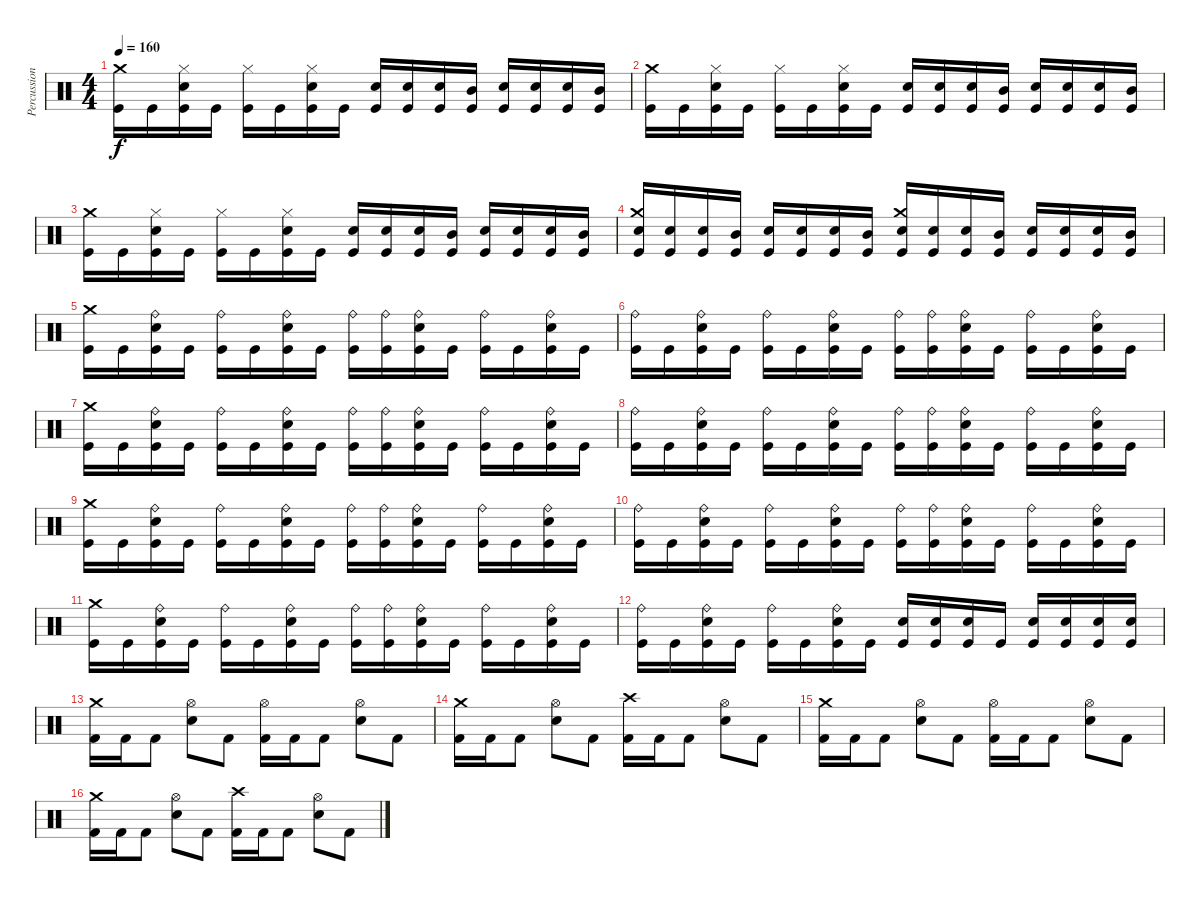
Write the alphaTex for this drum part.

\track ("Percussions" "Percussion") {instrument percussion}
\staff {score}
\articulation defaults
\ts (4 4)
\tempo 160
\clef neutral
\ks c
("Kick (hit)" "Crash medium (hit)").16{dy f} "Kick (hit)".16 ("Kick (hit)" "Snare (hit) 2" "Hi-Hat (closed)").16 "Kick (hit)".16 ("Kick (hit)" "Hi-Hat (closed)").16 "Kick (hit)".16 ("Kick (hit)" "Snare (hit) 2" "Hi-Hat (closed)").16 "Kick (hit)".16 ("Kick (hit)" "Electric Snare (hit)").16 ("Kick (hit)" "Electric Snare (hit)").16 ("Kick (hit)" "Snare (hit) 2").16 ("Kick (hit)" "Mid Tom (hit)").16 ("Kick (hit)" "Electric Snare (hit)").16 ("Kick (hit)" "Electric Snare (hit)").16 ("Kick (hit)" "Snare (hit) 2").16 ("Kick (hit)" "Mid Tom (hit)").16 |
("Kick (hit)" "Crash medium (hit)").16 "Kick (hit)".16 ("Kick (hit)" "Snare (hit) 2" "Hi-Hat (closed)").16 "Kick (hit)".16 ("Kick (hit)" "Hi-Hat (closed)").16 "Kick (hit)".16 ("Kick (hit)" "Snare (hit) 2" "Hi-Hat (closed)").16 "Kick (hit)".16 ("Kick (hit)" "Electric Snare (hit)").16 ("Kick (hit)" "Electric Snare (hit)").16 ("Kick (hit)" "Snare (hit) 2").16 ("Kick (hit)" "Mid Tom (hit)").16 ("Kick (hit)" "Electric Snare (hit)").16 ("Kick (hit)" "Electric Snare (hit)").16 ("Kick (hit)" "Snare (hit) 2").16 ("Kick (hit)" "Mid Tom (hit)").16 |
("Kick (hit)" "Crash medium (hit)").16 "Kick (hit)".16 ("Kick (hit)" "Snare (hit) 2" "Hi-Hat (closed)").16 "Kick (hit)".16 ("Kick (hit)" "Hi-Hat (closed)").16 "Kick (hit)".16 ("Kick (hit)" "Snare (hit) 2" "Hi-Hat (closed)").16 "Kick (hit)".16 ("Kick (hit)" "Electric Snare (hit)").16 ("Kick (hit)" "Electric Snare (hit)").16 ("Kick (hit)" "Snare (hit) 2").16 ("Kick (hit)" "Mid Tom (hit)").16 ("Kick (hit)" "Electric Snare (hit)").16 ("Kick (hit)" "Electric Snare (hit)").16 ("Kick (hit)" "Snare (hit) 2").16 ("Kick (hit)" "Mid Tom (hit)").16 |
("Kick (hit)" "Crash medium (hit)" "Electric Snare (hit)").16 ("Kick (hit)" "Electric Snare (hit)").16 ("Kick (hit)" "Snare (hit) 2").16 ("Kick (hit)" "Mid Tom (hit)").16 ("Kick (hit)" "Electric Snare (hit)").16 ("Kick (hit)" "Electric Snare (hit)").16 ("Kick (hit)" "Snare (hit) 2").16 ("Kick (hit)" "Mid Tom (hit)").16 ("Kick (hit)" "Crash medium (hit)" "Electric Snare (hit)").16 ("Kick (hit)" "Electric Snare (hit)").16 ("Kick (hit)" "Snare (hit) 2").16 ("Kick (hit)" "Mid Tom (hit)").16 ("Kick (hit)" "Electric Snare (hit)").16 ("Kick (hit)" "Electric Snare (hit)").16 ("Kick (hit)" "Snare (hit) 2").16 ("Kick (hit)" "Mid Tom (hit)").16 |
("Kick (hit)" "Crash medium (hit)").16 "Kick (hit)".16 ("Kick (hit)" "Electric Snare (hit)" "Ride (bell)").16 "Kick (hit)".16 ("Kick (hit)" "Ride (bell)").16 "Kick (hit)".16 ("Kick (hit)" "Electric Snare (hit)" "Ride (bell)").16 "Kick (hit)".16 ("Kick (hit)" "Ride (bell)").16 ("Kick (hit)" "Ride (bell)").16 ("Kick (hit)" "Electric Snare (hit)" "Ride (bell)").16 "Kick (hit)".16 ("Kick (hit)" "Ride (bell)").16 "Kick (hit)".16 ("Kick (hit)" "Electric Snare (hit)" "Ride (bell)").16 "Kick (hit)".16 |
("Kick (hit)" "Ride (bell)").16 "Kick (hit)".16 ("Kick (hit)" "Electric Snare (hit)" "Ride (bell)").16 "Kick (hit)".16 ("Kick (hit)" "Ride (bell)").16 "Kick (hit)".16 ("Kick (hit)" "Electric Snare (hit)" "Ride (bell)").16 "Kick (hit)".16 ("Kick (hit)" "Ride (bell)").16 ("Kick (hit)" "Ride (bell)").16 ("Kick (hit)" "Electric Snare (hit)" "Ride (bell)").16 "Kick (hit)".16 ("Kick (hit)" "Ride (bell)").16 "Kick (hit)".16 ("Kick (hit)" "Electric Snare (hit)" "Ride (bell)").16 "Kick (hit)".16 |
("Kick (hit)" "Crash medium (hit)").16 "Kick (hit)".16 ("Kick (hit)" "Electric Snare (hit)" "Ride (bell)").16 "Kick (hit)".16 ("Kick (hit)" "Ride (bell)").16 "Kick (hit)".16 ("Kick (hit)" "Electric Snare (hit)" "Ride (bell)").16 "Kick (hit)".16 ("Kick (hit)" "Ride (bell)").16 ("Kick (hit)" "Ride (bell)").16 ("Kick (hit)" "Electric Snare (hit)" "Ride (bell)").16 "Kick (hit)".16 ("Kick (hit)" "Ride (bell)").16 "Kick (hit)".16 ("Kick (hit)" "Electric Snare (hit)" "Ride (bell)").16 "Kick (hit)".16 |
("Kick (hit)" "Ride (bell)").16 "Kick (hit)".16 ("Kick (hit)" "Electric Snare (hit)" "Ride (bell)").16 "Kick (hit)".16 ("Kick (hit)" "Ride (bell)").16 "Kick (hit)".16 ("Kick (hit)" "Electric Snare (hit)" "Ride (bell)").16 "Kick (hit)".16 ("Kick (hit)" "Ride (bell)").16 ("Kick (hit)" "Ride (bell)").16 ("Kick (hit)" "Electric Snare (hit)" "Ride (bell)").16 "Kick (hit)".16 ("Kick (hit)" "Ride (bell)").16 "Kick (hit)".16 ("Kick (hit)" "Electric Snare (hit)" "Ride (bell)").16 "Kick (hit)".16 |
("Kick (hit)" "Crash medium (hit)").16 "Kick (hit)".16 ("Kick (hit)" "Electric Snare (hit)" "Ride (bell)").16 "Kick (hit)".16 ("Kick (hit)" "Ride (bell)").16 "Kick (hit)".16 ("Kick (hit)" "Electric Snare (hit)" "Ride (bell)").16 "Kick (hit)".16 ("Kick (hit)" "Ride (bell)").16 ("Kick (hit)" "Ride (bell)").16 ("Kick (hit)" "Electric Snare (hit)" "Ride (bell)").16 "Kick (hit)".16 ("Kick (hit)" "Ride (bell)").16 "Kick (hit)".16 ("Kick (hit)" "Electric Snare (hit)" "Ride (bell)").16 "Kick (hit)".16 |
("Kick (hit)" "Ride (bell)").16 "Kick (hit)".16 ("Kick (hit)" "Electric Snare (hit)" "Ride (bell)").16 "Kick (hit)".16 ("Kick (hit)" "Ride (bell)").16 "Kick (hit)".16 ("Kick (hit)" "Electric Snare (hit)" "Ride (bell)").16 "Kick (hit)".16 ("Kick (hit)" "Ride (bell)").16 ("Kick (hit)" "Ride (bell)").16 ("Kick (hit)" "Electric Snare (hit)" "Ride (bell)").16 "Kick (hit)".16 ("Kick (hit)" "Ride (bell)").16 "Kick (hit)".16 ("Kick (hit)" "Electric Snare (hit)" "Ride (bell)").16 "Kick (hit)".16 |
("Kick (hit)" "Crash medium (hit)").16 "Kick (hit)".16 ("Kick (hit)" "Electric Snare (hit)" "Ride (bell)").16 "Kick (hit)".16 ("Kick (hit)" "Ride (bell)").16 "Kick (hit)".16 ("Kick (hit)" "Electric Snare (hit)" "Ride (bell)").16 "Kick (hit)".16 ("Kick (hit)" "Ride (bell)").16 ("Kick (hit)" "Ride (bell)").16 ("Kick (hit)" "Electric Snare (hit)" "Ride (bell)").16 "Kick (hit)".16 ("Kick (hit)" "Ride (bell)").16 "Kick (hit)".16 ("Kick (hit)" "Electric Snare (hit)" "Ride (bell)").16 "Kick (hit)".16 |
("Kick (hit)" "Ride (bell)").16 "Kick (hit)".16 ("Kick (hit)" "Electric Snare (hit)" "Ride (bell)").16 "Kick (hit)".16 ("Kick (hit)" "Ride (bell)").16 "Kick (hit)".16 ("Kick (hit)" "Electric Snare (hit)" "Ride (bell)").16 "Kick (hit)".16 ("Kick (hit)" "Electric Snare (hit)").16 ("Kick (hit)" "Electric Snare (hit)").16 ("Kick (hit)" "Electric Snare (hit)").16 "Kick (hit)".16 ("Kick (hit)" "Snare (hit) 2").16 ("Kick (hit)" "Snare (hit) 2").16 ("Kick (hit)" "Snare (hit) 2").16 ("Kick (hit)" "Snare (hit) 2").16 |
("Kick (hit) 2" "Crash medium (hit)").16 "Kick (hit) 2".16 "Kick (hit) 2".8 ("Electric Snare (hit)" "Hi-Hat (open)").8 "Kick (hit) 2".8 ("Kick (hit) 2" "Hi-Hat (open)").16 "Kick (hit) 2".16 "Kick (hit) 2".8 ("Electric Snare (hit)" "Hi-Hat (open)").8 "Kick (hit) 2".8 |
("Kick (hit) 2" "Crash medium (hit)").16 "Kick (hit) 2".16 "Kick (hit) 2".8 ("Electric Snare (hit)" "Hi-Hat (open)").8 "Kick (hit) 2".8 ("Kick (hit) 2" "Crash high (hit)").16 "Kick (hit) 2".16 "Kick (hit) 2".8 ("Electric Snare (hit)" "Hi-Hat (open)").8 "Kick (hit) 2".8 |
("Kick (hit) 2" "Crash medium (hit)").16 "Kick (hit) 2".16 "Kick (hit) 2".8 ("Electric Snare (hit)" "Hi-Hat (open)").8 "Kick (hit) 2".8 ("Kick (hit) 2" "Hi-Hat (open)").16 "Kick (hit) 2".16 "Kick (hit) 2".8 ("Electric Snare (hit)" "Hi-Hat (open)").8 "Kick (hit) 2".8 |
("Kick (hit) 2" "Crash medium (hit)").16 "Kick (hit) 2".16 "Kick (hit) 2".8 ("Electric Snare (hit)" "Hi-Hat (open)").8 "Kick (hit) 2".8 ("Kick (hit) 2" "Crash high (hit)").16 "Kick (hit) 2".16 "Kick (hit) 2".8 ("Electric Snare (hit)" "Hi-Hat (open)").8 "Kick (hit) 2".8
